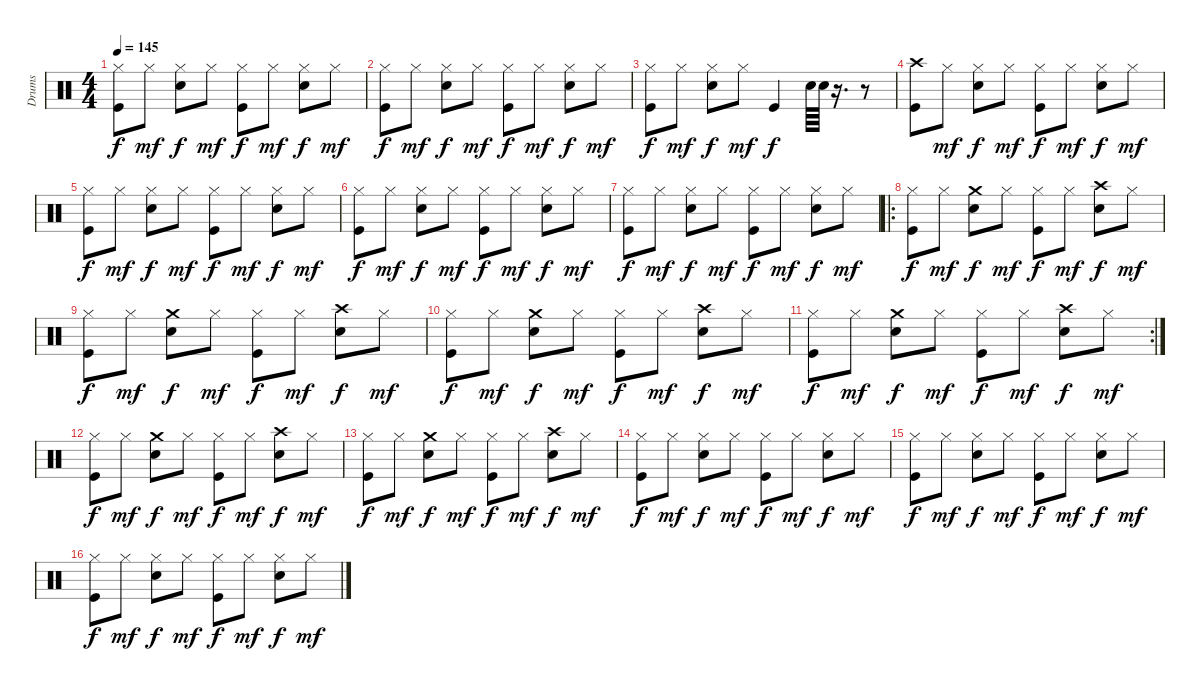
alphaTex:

\track ("Drums" "Drums") {instrument percussion}
\staff {score}
\articulation defaults
\ts (4 4)
\tempo 145
\clef neutral
\ks c
("Hi-Hat (closed)" "Kick (hit)").8{dy f} "Hi-Hat (closed)".8{dy mf} ("Hi-Hat (closed)" "Snare (hit) 2").8{dy f} "Hi-Hat (closed)".8{dy mf} ("Hi-Hat (closed)" "Kick (hit)").8{dy f} "Hi-Hat (closed)".8{dy mf} ("Hi-Hat (closed)" "Snare (hit) 2").8{dy f} "Hi-Hat (closed)".8{dy mf} |
("Hi-Hat (closed)" "Kick (hit)").8{dy f} "Hi-Hat (closed)".8{dy mf} ("Hi-Hat (closed)" "Snare (hit) 2").8{dy f} "Hi-Hat (closed)".8{dy mf} ("Hi-Hat (closed)" "Kick (hit)").8{dy f} "Hi-Hat (closed)".8{dy mf} ("Hi-Hat (closed)" "Snare (hit) 2").8{dy f} "Hi-Hat (closed)".8{dy mf} |
("Hi-Hat (closed)" "Kick (hit)").8{dy f} "Hi-Hat (closed)".8{dy mf} ("Hi-Hat (closed)" "Snare (hit) 2").8{dy f} "Hi-Hat (closed)".8{dy mf} "Kick (hit)".4{dy f} "Snare (hit) 2".64 "Snare (hit) 2".64 r.16{d} r.8 |
("Crash high (hit)" "Kick (hit)").8 "Hi-Hat (closed)".8{dy mf} ("Hi-Hat (closed)" "Snare (hit) 2").8{dy f} "Hi-Hat (closed)".8{dy mf} ("Hi-Hat (closed)" "Kick (hit)").8{dy f} "Hi-Hat (closed)".8{dy mf} ("Hi-Hat (closed)" "Snare (hit) 2").8{dy f} "Hi-Hat (closed)".8{dy mf} |
("Hi-Hat (closed)" "Kick (hit)").8{dy f} "Hi-Hat (closed)".8{dy mf} ("Hi-Hat (closed)" "Snare (hit) 2").8{dy f} "Hi-Hat (closed)".8{dy mf} ("Hi-Hat (closed)" "Kick (hit)").8{dy f} "Hi-Hat (closed)".8{dy mf} ("Hi-Hat (closed)" "Snare (hit) 2").8{dy f} "Hi-Hat (closed)".8{dy mf} |
("Hi-Hat (closed)" "Kick (hit)").8{dy f} "Hi-Hat (closed)".8{dy mf} ("Hi-Hat (closed)" "Snare (hit) 2").8{dy f} "Hi-Hat (closed)".8{dy mf} ("Hi-Hat (closed)" "Kick (hit)").8{dy f} "Hi-Hat (closed)".8{dy mf} ("Hi-Hat (closed)" "Snare (hit) 2").8{dy f} "Hi-Hat (closed)".8{dy mf} |
("Hi-Hat (closed)" "Kick (hit)").8{dy f} "Hi-Hat (closed)".8{dy mf} ("Hi-Hat (closed)" "Snare (hit) 2").8{dy f} "Hi-Hat (closed)".8{dy mf} ("Hi-Hat (closed)" "Kick (hit)").8{dy f} "Hi-Hat (closed)".8{dy mf} ("Hi-Hat (closed)" "Snare (hit) 2").8{dy f} "Hi-Hat (closed)".8{dy mf} |
\ro
("Hi-Hat (closed)" "Kick (hit)").8{dy f} "Hi-Hat (closed)".8{dy mf} ("Snare (hit) 2" "Crash medium (hit)").8{dy f} "Hi-Hat (closed)".8{dy mf} ("Hi-Hat (closed)" "Kick (hit)").8{dy f} "Hi-Hat (closed)".8{dy mf} ("Snare (hit) 2" "Crash high (hit)").8{dy f} "Hi-Hat (closed)".8{dy mf} |
("Hi-Hat (closed)" "Kick (hit)").8{dy f} "Hi-Hat (closed)".8{dy mf} ("Snare (hit) 2" "Crash medium (hit)").8{dy f} "Hi-Hat (closed)".8{dy mf} ("Hi-Hat (closed)" "Kick (hit)").8{dy f} "Hi-Hat (closed)".8{dy mf} ("Snare (hit) 2" "Crash high (hit)").8{dy f} "Hi-Hat (closed)".8{dy mf} |
("Hi-Hat (closed)" "Kick (hit)").8{dy f} "Hi-Hat (closed)".8{dy mf} ("Snare (hit) 2" "Crash medium (hit)").8{dy f} "Hi-Hat (closed)".8{dy mf} ("Hi-Hat (closed)" "Kick (hit)").8{dy f} "Hi-Hat (closed)".8{dy mf} ("Snare (hit) 2" "Crash high (hit)").8{dy f} "Hi-Hat (closed)".8{dy mf} |
\rc 2
("Hi-Hat (closed)" "Kick (hit)").8{dy f} "Hi-Hat (closed)".8{dy mf} ("Snare (hit) 2" "Crash medium (hit)").8{dy f} "Hi-Hat (closed)".8{dy mf} ("Hi-Hat (closed)" "Kick (hit)").8{dy f} "Hi-Hat (closed)".8{dy mf} ("Snare (hit) 2" "Crash high (hit)").8{dy f} "Hi-Hat (closed)".8{dy mf} |
("Hi-Hat (closed)" "Kick (hit)").8{dy f} "Hi-Hat (closed)".8{dy mf} ("Snare (hit) 2" "Crash medium (hit)").8{dy f} "Hi-Hat (closed)".8{dy mf} ("Hi-Hat (closed)" "Kick (hit)").8{dy f} "Hi-Hat (closed)".8{dy mf} ("Snare (hit) 2" "Crash high (hit)").8{dy f} "Hi-Hat (closed)".8{dy mf} |
("Hi-Hat (closed)" "Kick (hit)").8{dy f} "Hi-Hat (closed)".8{dy mf} ("Snare (hit) 2" "Crash medium (hit)").8{dy f} "Hi-Hat (closed)".8{dy mf} ("Hi-Hat (closed)" "Kick (hit)").8{dy f} "Hi-Hat (closed)".8{dy mf} ("Snare (hit) 2" "Crash high (hit)").8{dy f} "Hi-Hat (closed)".8{dy mf} |
("Hi-Hat (closed)" "Kick (hit)").8{dy f} "Hi-Hat (closed)".8{dy mf} ("Hi-Hat (closed)" "Snare (hit) 2").8{dy f} "Hi-Hat (closed)".8{dy mf} ("Hi-Hat (closed)" "Kick (hit)").8{dy f} "Hi-Hat (closed)".8{dy mf} ("Hi-Hat (closed)" "Snare (hit) 2").8{dy f} "Hi-Hat (closed)".8{dy mf} |
("Hi-Hat (closed)" "Kick (hit)").8{dy f} "Hi-Hat (closed)".8{dy mf} ("Hi-Hat (closed)" "Snare (hit) 2").8{dy f} "Hi-Hat (closed)".8{dy mf} ("Hi-Hat (closed)" "Kick (hit)").8{dy f} "Hi-Hat (closed)".8{dy mf} ("Hi-Hat (closed)" "Snare (hit) 2").8{dy f} "Hi-Hat (closed)".8{dy mf} |
("Hi-Hat (closed)" "Kick (hit)").8{dy f} "Hi-Hat (closed)".8{dy mf} ("Hi-Hat (closed)" "Snare (hit) 2").8{dy f} "Hi-Hat (closed)".8{dy mf} ("Hi-Hat (closed)" "Kick (hit)").8{dy f} "Hi-Hat (closed)".8{dy mf} ("Hi-Hat (closed)" "Snare (hit) 2").8{dy f} "Hi-Hat (closed)".8{dy mf}
